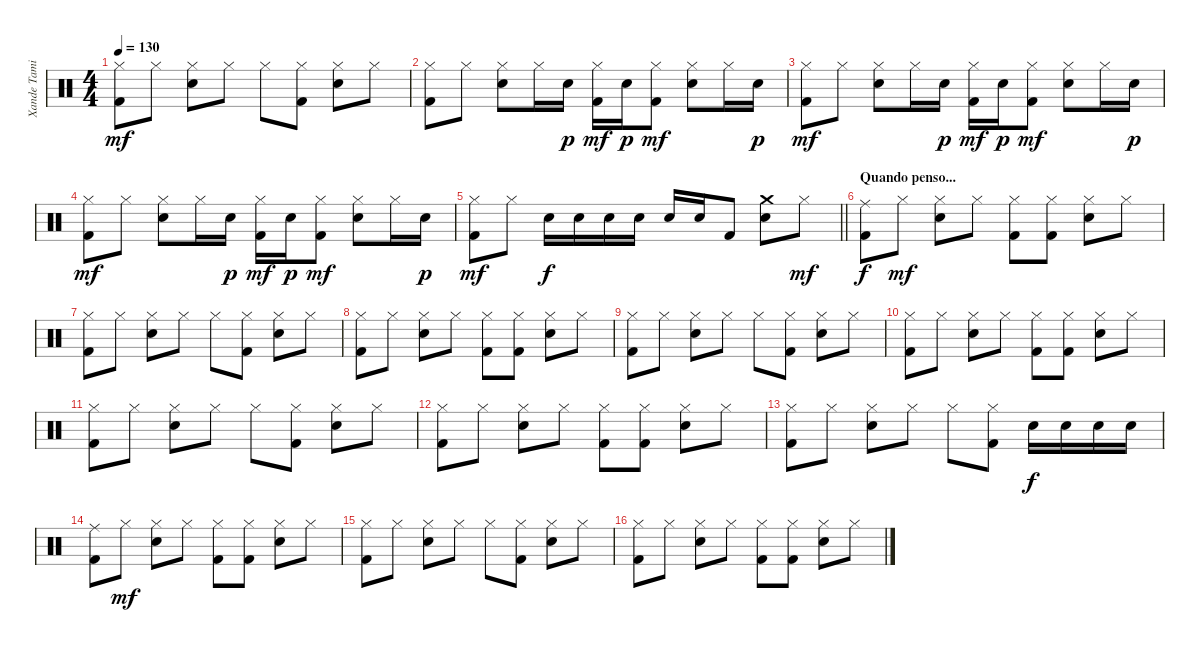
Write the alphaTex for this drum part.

\track ("Xande Tamietti" "Xande Tami") {instrument percussion}
\staff {score}
\articulation defaults
\ts (4 4)
\tempo 130
\clef neutral
\ks c
("Hi-Hat (closed)" "Kick (hit) 2").8{dy mf} "Hi-Hat (closed)".8 ("Hi-Hat (closed)" "Electric Snare (hit)").8 "Hi-Hat (closed)".8 "Hi-Hat (closed)".8 ("Hi-Hat (closed)" "Kick (hit) 2").8 ("Hi-Hat (closed)" "Electric Snare (hit)").8 "Hi-Hat (closed)".8 |
("Hi-Hat (closed)" "Kick (hit) 2").8 "Hi-Hat (closed)".8 ("Hi-Hat (closed)" "Electric Snare (hit)").8 "Hi-Hat (closed)".16 "Snare (hit) 2".16{dy p} ("Hi-Hat (closed)" "Kick (hit) 2").16{dy mf} "Snare (hit) 2".16{dy p} ("Hi-Hat (closed)" "Kick (hit) 2").8{dy mf} ("Hi-Hat (closed)" "Electric Snare (hit)").8 "Hi-Hat (closed)".16 "Snare (hit) 2".16{dy p} |
("Hi-Hat (closed)" "Kick (hit) 2").8{dy mf} "Hi-Hat (closed)".8 ("Hi-Hat (closed)" "Electric Snare (hit)").8 "Hi-Hat (closed)".16 "Snare (hit) 2".16{dy p} ("Hi-Hat (closed)" "Kick (hit) 2").16{dy mf} "Snare (hit) 2".16{dy p} ("Hi-Hat (closed)" "Kick (hit) 2").8{dy mf} ("Hi-Hat (closed)" "Electric Snare (hit)").8 "Hi-Hat (closed)".16 "Snare (hit) 2".16{dy p} |
("Hi-Hat (closed)" "Kick (hit) 2").8{dy mf} "Hi-Hat (closed)".8 ("Hi-Hat (closed)" "Electric Snare (hit)").8 "Hi-Hat (closed)".16 "Snare (hit) 2".16{dy p} ("Hi-Hat (closed)" "Kick (hit) 2").16{dy mf} "Snare (hit) 2".16{dy p} ("Hi-Hat (closed)" "Kick (hit) 2").8{dy mf} ("Hi-Hat (closed)" "Electric Snare (hit)").8 "Hi-Hat (closed)".16 "Snare (hit) 2".16{dy p} |
\barLineRight lightlight
("Hi-Hat (closed)" "Kick (hit) 2").8{dy mf} "Hi-Hat (closed)".8 "Electric Snare (hit)".16{dy f} "Electric Snare (hit)".16 "Electric Snare (hit)".16 "Electric Snare (hit)".16 "Electric Snare (hit)".16 "Electric Snare (hit)".16 "Kick (hit) 2".8 ("Crash medium (hit)" "Electric Snare (hit)").8 "Hi-Hat (closed)".8{dy mf} |
\section ("" "Quando penso...")
("Ride (middle)" "Kick (hit) 2").8{dy f} "Hi-Hat (closed)".8{dy mf} ("Hi-Hat (closed)" "Electric Snare (hit)").8 "Hi-Hat (closed)".8 ("Hi-Hat (closed)" "Kick (hit) 2").8 ("Hi-Hat (closed)" "Kick (hit) 2").8 ("Hi-Hat (closed)" "Electric Snare (hit)").8 "Hi-Hat (closed)".8 |
("Hi-Hat (closed)" "Kick (hit) 2").8 "Hi-Hat (closed)".8 ("Hi-Hat (closed)" "Electric Snare (hit)").8 "Hi-Hat (closed)".8 "Hi-Hat (closed)".8 ("Hi-Hat (closed)" "Kick (hit) 2").8 ("Hi-Hat (closed)" "Electric Snare (hit)").8 "Hi-Hat (closed)".8 |
("Hi-Hat (closed)" "Kick (hit) 2").8 "Hi-Hat (closed)".8 ("Hi-Hat (closed)" "Electric Snare (hit)").8 "Hi-Hat (closed)".8 ("Hi-Hat (closed)" "Kick (hit) 2").8 ("Hi-Hat (closed)" "Kick (hit) 2").8 ("Hi-Hat (closed)" "Electric Snare (hit)").8 "Hi-Hat (closed)".8 |
("Hi-Hat (closed)" "Kick (hit) 2").8 "Hi-Hat (closed)".8 ("Hi-Hat (closed)" "Electric Snare (hit)").8 "Hi-Hat (closed)".8 "Hi-Hat (closed)".8 ("Hi-Hat (closed)" "Kick (hit) 2").8 ("Hi-Hat (closed)" "Electric Snare (hit)").8 "Hi-Hat (closed)".8 |
("Hi-Hat (closed)" "Kick (hit) 2").8 "Hi-Hat (closed)".8 ("Hi-Hat (closed)" "Electric Snare (hit)").8 "Hi-Hat (closed)".8 ("Hi-Hat (closed)" "Kick (hit) 2").8 ("Hi-Hat (closed)" "Kick (hit) 2").8 ("Hi-Hat (closed)" "Electric Snare (hit)").8 "Hi-Hat (closed)".8 |
("Hi-Hat (closed)" "Kick (hit) 2").8 "Hi-Hat (closed)".8 ("Hi-Hat (closed)" "Electric Snare (hit)").8 "Hi-Hat (closed)".8 "Hi-Hat (closed)".8 ("Hi-Hat (closed)" "Kick (hit) 2").8 ("Hi-Hat (closed)" "Electric Snare (hit)").8 "Hi-Hat (closed)".8 |
("Hi-Hat (closed)" "Kick (hit) 2").8 "Hi-Hat (closed)".8 ("Hi-Hat (closed)" "Electric Snare (hit)").8 "Hi-Hat (closed)".8 ("Hi-Hat (closed)" "Kick (hit) 2").8 ("Hi-Hat (closed)" "Kick (hit) 2").8 ("Hi-Hat (closed)" "Electric Snare (hit)").8 "Hi-Hat (closed)".8 |
("Hi-Hat (closed)" "Kick (hit) 2").8 "Hi-Hat (closed)".8 ("Hi-Hat (closed)" "Electric Snare (hit)").8 "Hi-Hat (closed)".8 "Hi-Hat (closed)".8 ("Hi-Hat (closed)" "Kick (hit) 2").8 "Electric Snare (hit)".16{dy f} "Electric Snare (hit)".16 "Electric Snare (hit)".16 "Electric Snare (hit)".16 |
("Ride (middle)" "Kick (hit) 2").8 "Hi-Hat (closed)".8{dy mf} ("Hi-Hat (closed)" "Electric Snare (hit)").8 "Hi-Hat (closed)".8 ("Hi-Hat (closed)" "Kick (hit) 2").8 ("Hi-Hat (closed)" "Kick (hit) 2").8 ("Hi-Hat (closed)" "Electric Snare (hit)").8 "Hi-Hat (closed)".8 |
("Hi-Hat (closed)" "Kick (hit) 2").8 "Hi-Hat (closed)".8 ("Hi-Hat (closed)" "Electric Snare (hit)").8 "Hi-Hat (closed)".8 "Hi-Hat (closed)".8 ("Hi-Hat (closed)" "Kick (hit) 2").8 ("Hi-Hat (closed)" "Electric Snare (hit)").8 "Hi-Hat (closed)".8 |
("Hi-Hat (closed)" "Kick (hit) 2").8 "Hi-Hat (closed)".8 ("Hi-Hat (closed)" "Electric Snare (hit)").8 "Hi-Hat (closed)".8 ("Hi-Hat (closed)" "Kick (hit) 2").8 ("Hi-Hat (closed)" "Kick (hit) 2").8 ("Hi-Hat (closed)" "Electric Snare (hit)").8 "Hi-Hat (closed)".8
